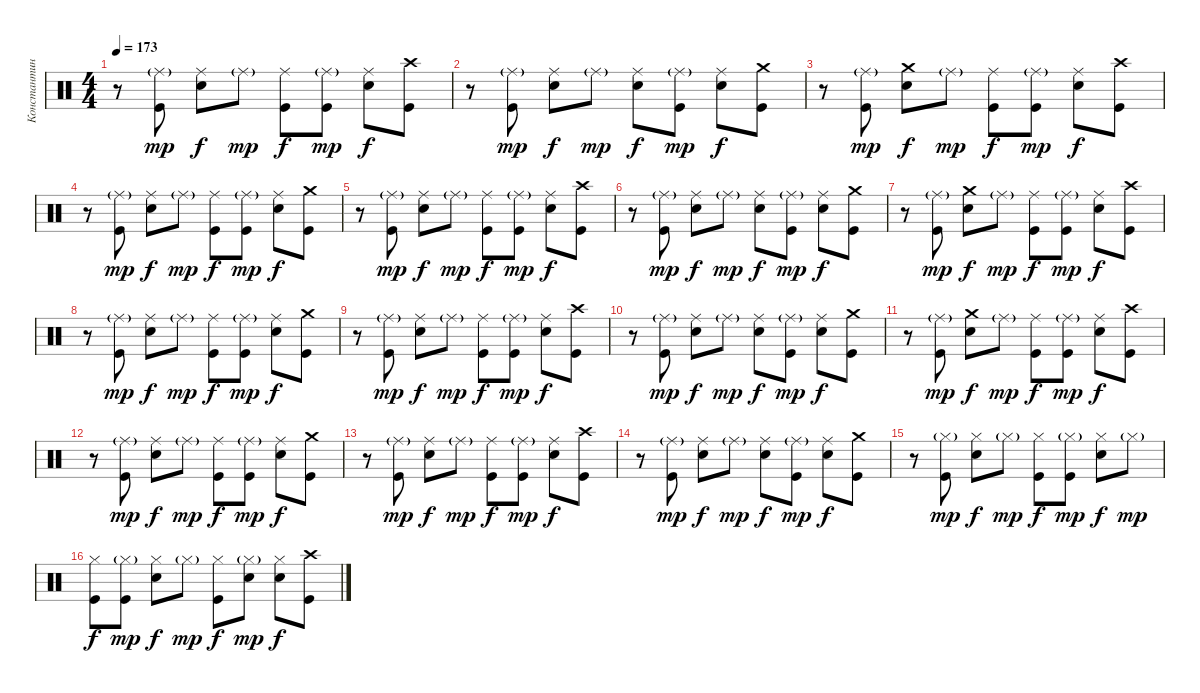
\track ("Константин Дементьев" "Константин") {instrument percussion}
\staff {score}
\articulation defaults
\ts (4 4)
\tempo 173
\clef neutral
\ks c
r.8{dy f} ("Ride (middle)"{g} "Kick (hit)").8{dy mp} ("Ride (middle)" "Electric Snare (hit)").8{dy f} "Ride (middle)"{g}.8{dy mp} ("Ride (middle)" "Kick (hit)").8{dy f} ("Ride (middle)"{g} "Kick (hit)").8{dy mp} ("Ride (middle)" "Electric Snare (hit)").8{dy f} ("Crash high (hit)" "Kick (hit)").8 |
r.8 ("Ride (middle)"{g} "Kick (hit)").8{dy mp} ("Ride (middle)" "Electric Snare (hit)").8{dy f} "Ride (middle)"{g}.8{dy mp} ("Ride (middle)" "Electric Snare (hit)").8{dy f} ("Ride (middle)"{g} "Kick (hit)").8{dy mp} ("Ride (middle)" "Electric Snare (hit)").8{dy f} ("Crash medium (hit)" "Kick (hit)").8 |
r.8 ("Ride (middle)"{g} "Kick (hit)").8{dy mp} ("Crash medium (hit)" "Electric Snare (hit)").8{dy f} "Ride (middle)"{g}.8{dy mp} ("Ride (middle)" "Kick (hit)").8{dy f} ("Ride (middle)"{g} "Kick (hit)").8{dy mp} ("Ride (middle)" "Electric Snare (hit)").8{dy f} ("Crash high (hit)" "Kick (hit)").8 |
r.8 ("Ride (middle)"{g} "Kick (hit)").8{dy mp} ("Ride (middle)" "Electric Snare (hit)").8{dy f} "Ride (middle)"{g}.8{dy mp} ("Ride (middle)" "Kick (hit)").8{dy f} ("Ride (middle)"{g} "Kick (hit)").8{dy mp} ("Ride (middle)" "Electric Snare (hit)").8{dy f} ("Crash medium (hit)" "Kick (hit)").8 |
r.8 ("Ride (middle)"{g} "Kick (hit)").8{dy mp} ("Ride (middle)" "Electric Snare (hit)").8{dy f} "Ride (middle)"{g}.8{dy mp} ("Ride (middle)" "Kick (hit)").8{dy f} ("Ride (middle)"{g} "Kick (hit)").8{dy mp} ("Ride (middle)" "Electric Snare (hit)").8{dy f} ("Crash high (hit)" "Kick (hit)").8 |
r.8 ("Ride (middle)"{g} "Kick (hit)").8{dy mp} ("Ride (middle)" "Electric Snare (hit)").8{dy f} "Ride (middle)"{g}.8{dy mp} ("Ride (middle)" "Electric Snare (hit)").8{dy f} ("Ride (middle)"{g} "Kick (hit)").8{dy mp} ("Ride (middle)" "Electric Snare (hit)").8{dy f} ("Crash medium (hit)" "Kick (hit)").8 |
r.8 ("Ride (middle)"{g} "Kick (hit)").8{dy mp} ("Crash medium (hit)" "Electric Snare (hit)").8{dy f} "Ride (middle)"{g}.8{dy mp} ("Ride (middle)" "Kick (hit)").8{dy f} ("Ride (middle)"{g} "Kick (hit)").8{dy mp} ("Ride (middle)" "Electric Snare (hit)").8{dy f} ("Crash high (hit)" "Kick (hit)").8 |
r.8 ("Ride (middle)"{g} "Kick (hit)").8{dy mp} ("Ride (middle)" "Electric Snare (hit)").8{dy f} "Ride (middle)"{g}.8{dy mp} ("Ride (middle)" "Kick (hit)").8{dy f} ("Ride (middle)"{g} "Kick (hit)").8{dy mp} ("Ride (middle)" "Electric Snare (hit)").8{dy f} ("Crash medium (hit)" "Kick (hit)").8 |
r.8 ("Ride (middle)"{g} "Kick (hit)").8{dy mp} ("Ride (middle)" "Electric Snare (hit)").8{dy f} "Ride (middle)"{g}.8{dy mp} ("Ride (middle)" "Kick (hit)").8{dy f} ("Ride (middle)"{g} "Kick (hit)").8{dy mp} ("Ride (middle)" "Electric Snare (hit)").8{dy f} ("Crash high (hit)" "Kick (hit)").8 |
r.8 ("Ride (middle)"{g} "Kick (hit)").8{dy mp} ("Ride (middle)" "Electric Snare (hit)").8{dy f} "Ride (middle)"{g}.8{dy mp} ("Ride (middle)" "Electric Snare (hit)").8{dy f} ("Ride (middle)"{g} "Kick (hit)").8{dy mp} ("Ride (middle)" "Electric Snare (hit)").8{dy f} ("Crash medium (hit)" "Kick (hit)").8 |
r.8 ("Ride (middle)"{g} "Kick (hit)").8{dy mp} ("Crash medium (hit)" "Electric Snare (hit)").8{dy f} "Ride (middle)"{g}.8{dy mp} ("Ride (middle)" "Kick (hit)").8{dy f} ("Ride (middle)"{g} "Kick (hit)").8{dy mp} ("Ride (middle)" "Electric Snare (hit)").8{dy f} ("Crash high (hit)" "Kick (hit)").8 |
r.8 ("Ride (middle)"{g} "Kick (hit)").8{dy mp} ("Ride (middle)" "Electric Snare (hit)").8{dy f} "Ride (middle)"{g}.8{dy mp} ("Ride (middle)" "Kick (hit)").8{dy f} ("Ride (middle)"{g} "Kick (hit)").8{dy mp} ("Ride (middle)" "Electric Snare (hit)").8{dy f} ("Crash medium (hit)" "Kick (hit)").8 |
r.8 ("Ride (middle)"{g} "Kick (hit)").8{dy mp} ("Ride (middle)" "Electric Snare (hit)").8{dy f} "Ride (middle)"{g}.8{dy mp} ("Ride (middle)" "Kick (hit)").8{dy f} ("Ride (middle)"{g} "Kick (hit)").8{dy mp} ("Ride (middle)" "Electric Snare (hit)").8{dy f} ("Crash high (hit)" "Kick (hit)").8 |
r.8 ("Ride (middle)"{g} "Kick (hit)").8{dy mp} ("Ride (middle)" "Electric Snare (hit)").8{dy f} "Ride (middle)"{g}.8{dy mp} ("Ride (middle)" "Electric Snare (hit)").8{dy f} ("Ride (middle)"{g} "Kick (hit)").8{dy mp} ("Ride (middle)" "Electric Snare (hit)").8{dy f} ("Crash medium (hit)" "Kick (hit)").8 |
r.8 ("Hi-Hat (closed)"{g} "Kick (hit)").8{dy mp} ("Hi-Hat (closed)" "Electric Snare (hit)").8{dy f} "Hi-Hat (closed)"{g}.8{dy mp} ("Hi-Hat (closed)" "Kick (hit)").8{dy f} ("Hi-Hat (closed)"{g} "Kick (hit)").8{dy mp} ("Hi-Hat (closed)" "Electric Snare (hit)").8{dy f} "Hi-Hat (closed)"{g}.8{dy mp} |
("Hi-Hat (closed)" "Kick (hit)").8{dy f} ("Hi-Hat (closed)"{g} "Kick (hit)").8{dy mp} ("Hi-Hat (closed)" "Electric Snare (hit)").8{dy f} "Hi-Hat (closed)"{g}.8{dy mp} ("Hi-Hat (closed)" "Kick (hit)").8{dy f} ("Hi-Hat (closed)"{g} "Electric Snare (hit)").8{dy mp} ("Hi-Hat (closed)" "Electric Snare (hit)").8{dy f} ("Crash high (hit)" "Kick (hit)").8
